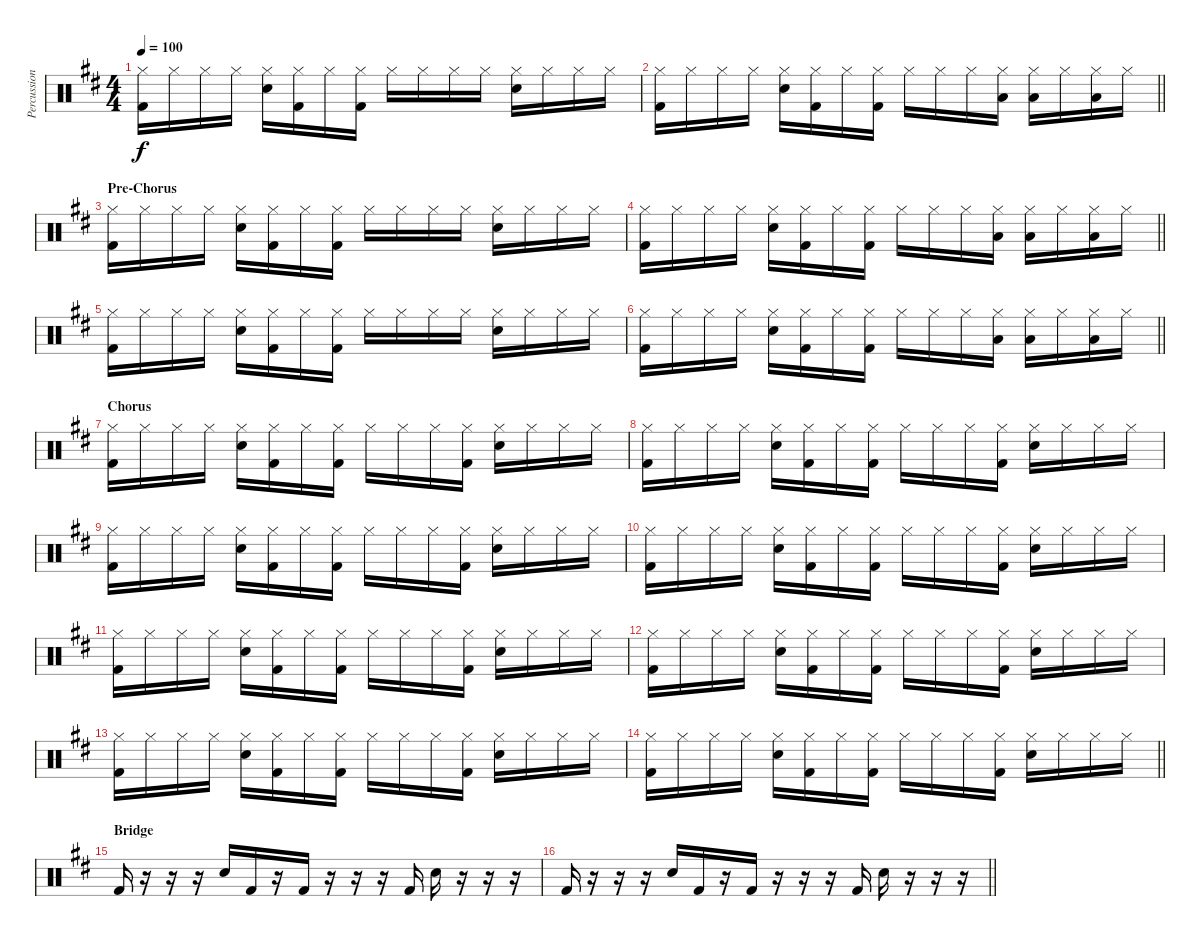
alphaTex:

\track ("Percussion" "Percussion") {instrument percussion}
\staff {score}
\articulation defaults
\ts (4 4)
\tempo 100
\clef neutral
\ks d
("Hi-Hat (closed)" "Kick (hit) 2").16{dy f} "Hi-Hat (closed)".16 "Hi-Hat (closed)".16 "Hi-Hat (closed)".16 ("Hi-Hat (closed)" "Snare (hit) 2").16 ("Hi-Hat (closed)" "Kick (hit) 2").16 "Hi-Hat (closed)".16 ("Hi-Hat (closed)" "Kick (hit) 2").16 "Hi-Hat (closed)".16 "Hi-Hat (closed)".16 "Hi-Hat (closed)".16 "Hi-Hat (closed)".16 ("Hi-Hat (closed)" "Snare (hit) 2").16 "Hi-Hat (closed)".16 "Hi-Hat (closed)".16 "Hi-Hat (closed)".16 |
\barLineRight lightlight
("Hi-Hat (closed)" "Kick (hit) 2").16 "Hi-Hat (closed)".16 "Hi-Hat (closed)".16 "Hi-Hat (closed)".16 ("Hi-Hat (closed)" "Snare (hit) 2").16 ("Hi-Hat (closed)" "Kick (hit) 2").16 "Hi-Hat (closed)".16 ("Hi-Hat (closed)" "Kick (hit) 2").16 "Hi-Hat (closed)".16 "Hi-Hat (closed)".16 "Hi-Hat (closed)".16 ("Hi-Hat (closed)" "Low Tom (hit)").16 ("Hi-Hat (closed)" "Low Tom (hit)").16 "Hi-Hat (closed)".16 ("Hi-Hat (closed)" "Low Floor Tom (hit)").16 "Hi-Hat (closed)".16 |
\section ("" "Pre-Chorus")
("Hi-Hat (closed)" "Kick (hit) 2").16 "Hi-Hat (closed)".16 "Hi-Hat (closed)".16 "Hi-Hat (closed)".16 ("Hi-Hat (closed)" "Snare (hit) 2").16 ("Hi-Hat (closed)" "Kick (hit) 2").16 "Hi-Hat (closed)".16 ("Hi-Hat (closed)" "Kick (hit) 2").16 "Hi-Hat (closed)".16 "Hi-Hat (closed)".16 "Hi-Hat (closed)".16 "Hi-Hat (closed)".16 ("Hi-Hat (closed)" "Snare (hit) 2").16 "Hi-Hat (closed)".16 "Hi-Hat (closed)".16 "Hi-Hat (closed)".16 |
\barLineRight lightlight
("Hi-Hat (closed)" "Kick (hit) 2").16 "Hi-Hat (closed)".16 "Hi-Hat (closed)".16 "Hi-Hat (closed)".16 ("Hi-Hat (closed)" "Snare (hit) 2").16 ("Hi-Hat (closed)" "Kick (hit) 2").16 "Hi-Hat (closed)".16 ("Hi-Hat (closed)" "Kick (hit) 2").16 "Hi-Hat (closed)".16 "Hi-Hat (closed)".16 "Hi-Hat (closed)".16 ("Hi-Hat (closed)" "Low Tom (hit)").16 ("Hi-Hat (closed)" "Low Tom (hit)").16 "Hi-Hat (closed)".16 ("Hi-Hat (closed)" "Low Floor Tom (hit)").16 "Hi-Hat (closed)".16 |
("Hi-Hat (closed)" "Kick (hit) 2").16 "Hi-Hat (closed)".16 "Hi-Hat (closed)".16 "Hi-Hat (closed)".16 ("Hi-Hat (closed)" "Snare (hit) 2").16 ("Hi-Hat (closed)" "Kick (hit) 2").16 "Hi-Hat (closed)".16 ("Hi-Hat (closed)" "Kick (hit) 2").16 "Hi-Hat (closed)".16 "Hi-Hat (closed)".16 "Hi-Hat (closed)".16 "Hi-Hat (closed)".16 ("Hi-Hat (closed)" "Snare (hit) 2").16 "Hi-Hat (closed)".16 "Hi-Hat (closed)".16 "Hi-Hat (closed)".16 |
\barLineRight lightlight
("Hi-Hat (closed)" "Kick (hit) 2").16 "Hi-Hat (closed)".16 "Hi-Hat (closed)".16 "Hi-Hat (closed)".16 ("Hi-Hat (closed)" "Snare (hit) 2").16 ("Hi-Hat (closed)" "Kick (hit) 2").16 "Hi-Hat (closed)".16 ("Hi-Hat (closed)" "Kick (hit) 2").16 "Hi-Hat (closed)".16 "Hi-Hat (closed)".16 "Hi-Hat (closed)".16 ("Hi-Hat (closed)" "Low Tom (hit)").16 ("Hi-Hat (closed)" "Low Tom (hit)").16 "Hi-Hat (closed)".16 ("Hi-Hat (closed)" "Low Floor Tom (hit)").16 "Hi-Hat (closed)".16 |
\section ("" "Chorus")
("Hi-Hat (closed)" "Kick (hit) 2").16 "Hi-Hat (closed)".16 "Hi-Hat (closed)".16 "Hi-Hat (closed)".16 ("Hi-Hat (closed)" "Snare (hit) 2").16 ("Hi-Hat (closed)" "Kick (hit) 2").16 "Hi-Hat (closed)".16 ("Hi-Hat (closed)" "Kick (hit) 2").16 "Hi-Hat (closed)".16 "Hi-Hat (closed)".16 "Hi-Hat (closed)".16 ("Hi-Hat (closed)" "Kick (hit) 2").16 ("Hi-Hat (closed)" "Snare (hit) 2").16 "Hi-Hat (closed)".16 "Hi-Hat (closed)".16 "Hi-Hat (closed)".16 |
("Hi-Hat (closed)" "Kick (hit) 2").16 "Hi-Hat (closed)".16 "Hi-Hat (closed)".16 "Hi-Hat (closed)".16 ("Hi-Hat (closed)" "Snare (hit) 2").16 ("Hi-Hat (closed)" "Kick (hit) 2").16 "Hi-Hat (closed)".16 ("Hi-Hat (closed)" "Kick (hit) 2").16 "Hi-Hat (closed)".16 "Hi-Hat (closed)".16 "Hi-Hat (closed)".16 ("Hi-Hat (closed)" "Kick (hit) 2").16 ("Hi-Hat (closed)" "Snare (hit) 2").16 "Hi-Hat (closed)".16 "Hi-Hat (closed)".16 "Hi-Hat (closed)".16 |
("Hi-Hat (closed)" "Kick (hit) 2").16 "Hi-Hat (closed)".16 "Hi-Hat (closed)".16 "Hi-Hat (closed)".16 ("Hi-Hat (closed)" "Snare (hit) 2").16 ("Hi-Hat (closed)" "Kick (hit) 2").16 "Hi-Hat (closed)".16 ("Hi-Hat (closed)" "Kick (hit) 2").16 "Hi-Hat (closed)".16 "Hi-Hat (closed)".16 "Hi-Hat (closed)".16 ("Hi-Hat (closed)" "Kick (hit) 2").16 ("Hi-Hat (closed)" "Snare (hit) 2").16 "Hi-Hat (closed)".16 "Hi-Hat (closed)".16 "Hi-Hat (closed)".16 |
("Hi-Hat (closed)" "Kick (hit) 2").16 "Hi-Hat (closed)".16 "Hi-Hat (closed)".16 "Hi-Hat (closed)".16 ("Hi-Hat (closed)" "Snare (hit) 2").16 ("Hi-Hat (closed)" "Kick (hit) 2").16 "Hi-Hat (closed)".16 ("Hi-Hat (closed)" "Kick (hit) 2").16 "Hi-Hat (closed)".16 "Hi-Hat (closed)".16 "Hi-Hat (closed)".16 ("Hi-Hat (closed)" "Kick (hit) 2").16 ("Hi-Hat (closed)" "Snare (hit) 2").16 "Hi-Hat (closed)".16 "Hi-Hat (closed)".16 "Hi-Hat (closed)".16 |
("Hi-Hat (closed)" "Kick (hit) 2").16 "Hi-Hat (closed)".16 "Hi-Hat (closed)".16 "Hi-Hat (closed)".16 ("Hi-Hat (closed)" "Snare (hit) 2").16 ("Hi-Hat (closed)" "Kick (hit) 2").16 "Hi-Hat (closed)".16 ("Hi-Hat (closed)" "Kick (hit) 2").16 "Hi-Hat (closed)".16 "Hi-Hat (closed)".16 "Hi-Hat (closed)".16 ("Hi-Hat (closed)" "Kick (hit) 2").16 ("Hi-Hat (closed)" "Snare (hit) 2").16 "Hi-Hat (closed)".16 "Hi-Hat (closed)".16 "Hi-Hat (closed)".16 |
("Hi-Hat (closed)" "Kick (hit) 2").16 "Hi-Hat (closed)".16 "Hi-Hat (closed)".16 "Hi-Hat (closed)".16 ("Hi-Hat (closed)" "Snare (hit) 2").16 ("Hi-Hat (closed)" "Kick (hit) 2").16 "Hi-Hat (closed)".16 ("Hi-Hat (closed)" "Kick (hit) 2").16 "Hi-Hat (closed)".16 "Hi-Hat (closed)".16 "Hi-Hat (closed)".16 ("Hi-Hat (closed)" "Kick (hit) 2").16 ("Hi-Hat (closed)" "Snare (hit) 2").16 "Hi-Hat (closed)".16 "Hi-Hat (closed)".16 "Hi-Hat (closed)".16 |
("Hi-Hat (closed)" "Kick (hit) 2").16 "Hi-Hat (closed)".16 "Hi-Hat (closed)".16 "Hi-Hat (closed)".16 ("Hi-Hat (closed)" "Snare (hit) 2").16 ("Hi-Hat (closed)" "Kick (hit) 2").16 "Hi-Hat (closed)".16 ("Hi-Hat (closed)" "Kick (hit) 2").16 "Hi-Hat (closed)".16 "Hi-Hat (closed)".16 "Hi-Hat (closed)".16 ("Hi-Hat (closed)" "Kick (hit) 2").16 ("Hi-Hat (closed)" "Snare (hit) 2").16 "Hi-Hat (closed)".16 "Hi-Hat (closed)".16 "Hi-Hat (closed)".16 |
\barLineRight lightlight
("Hi-Hat (closed)" "Kick (hit) 2").16 "Hi-Hat (closed)".16 "Hi-Hat (closed)".16 "Hi-Hat (closed)".16 ("Hi-Hat (closed)" "Snare (hit) 2").16 ("Hi-Hat (closed)" "Kick (hit) 2").16 "Hi-Hat (closed)".16 ("Hi-Hat (closed)" "Kick (hit) 2").16 "Hi-Hat (closed)".16 "Hi-Hat (closed)".16 "Hi-Hat (closed)".16 ("Hi-Hat (closed)" "Kick (hit) 2").16 ("Hi-Hat (closed)" "Snare (hit) 2").16 "Hi-Hat (closed)".16 "Hi-Hat (closed)".16 "Hi-Hat (closed)".16 |
\section ("" "Bridge")
"Kick (hit) 2".16 r.16 r.16 r.16 "Snare (hit) 2".16 "Kick (hit) 2".16 r.16 "Kick (hit) 2".16 r.16 r.16 r.16 "Kick (hit) 2".16 "Snare (hit) 2".16 r.16 r.16 r.16 |
\barLineRight lightlight "Kick (hit) 2".16
r.16 r.16 r.16 "Snare (hit) 2".16 "Kick (hit) 2".16 r.16 "Kick (hit) 2".16 r.16 r.16 r.16 "Kick (hit) 2".16 "Snare (hit) 2".16 r.16 r.16 r.16
